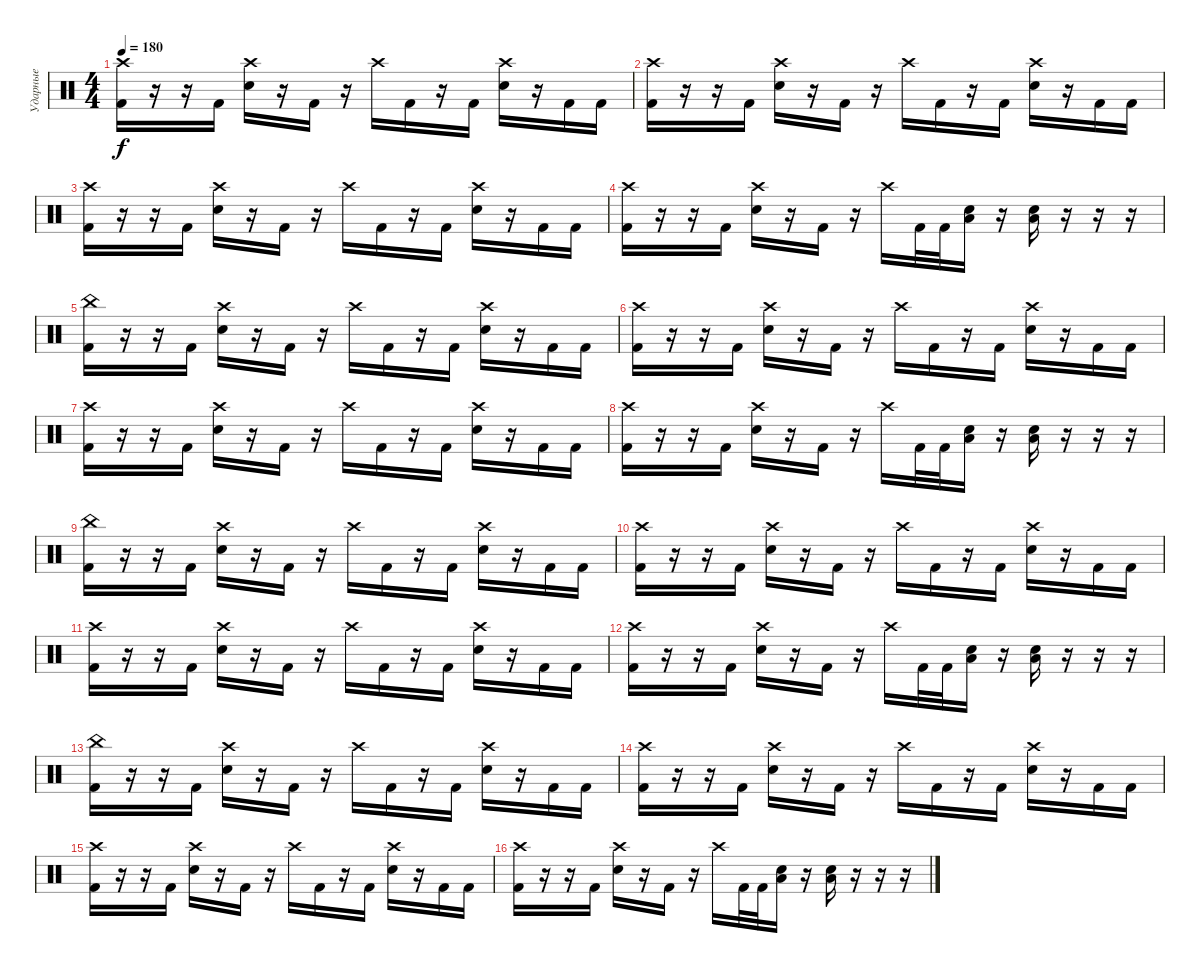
\track ("Ударные" "Ударные") {instrument percussion}
\staff {score}
\articulation defaults
\ts (4 4)
\tempo 180
\clef neutral
\ks c
("Crash high (hit)" "Kick (hit) 2").16{dy f} r.16 r.16 "Kick (hit) 2".16 ("Crash high (hit)" "Electric Snare (hit)").16 r.16 "Kick (hit) 2".16 r.16 "Crash high (hit)".16 "Kick (hit) 2".16 r.16 "Kick (hit) 2".16 ("Crash high (hit)" "Electric Snare (hit)").16 r.16 "Kick (hit) 2".16 "Kick (hit) 2".16 |
("Crash high (hit)" "Kick (hit) 2").16 r.16 r.16 "Kick (hit) 2".16 ("Crash high (hit)" "Electric Snare (hit)").16 r.16 "Kick (hit) 2".16 r.16 "Crash high (hit)".16 "Kick (hit) 2".16 r.16 "Kick (hit) 2".16 ("Crash high (hit)" "Electric Snare (hit)").16 r.16 "Kick (hit) 2".16 "Kick (hit) 2".16 |
("Crash high (hit)" "Kick (hit) 2").16 r.16 r.16 "Kick (hit) 2".16 ("Crash high (hit)" "Electric Snare (hit)").16 r.16 "Kick (hit) 2".16 r.16 "Crash high (hit)".16 "Kick (hit) 2".16 r.16 "Kick (hit) 2".16 ("Crash high (hit)" "Electric Snare (hit)").16 r.16 "Kick (hit) 2".16 "Kick (hit) 2".16 |
("Crash high (hit)" "Kick (hit) 2").16 r.16 r.16 "Kick (hit) 2".16 ("Crash high (hit)" "Electric Snare (hit)").16 r.16 "Kick (hit) 2".16 r.16 "Crash high (hit)".16 "Kick (hit) 2".32 "Kick (hit) 2".32 ("Low Tom (hit)" "Electric Snare (hit)").16 r.16 ("Low Tom (hit)" "Electric Snare (hit)").16 r.16 r.16 r.16 |
("China (hit)" "Kick (hit) 2").16 r.16 r.16 "Kick (hit) 2".16 ("Crash high (hit)" "Electric Snare (hit)").16 r.16 "Kick (hit) 2".16 r.16 "Crash high (hit)".16 "Kick (hit) 2".16 r.16 "Kick (hit) 2".16 ("Crash high (hit)" "Electric Snare (hit)").16 r.16 "Kick (hit) 2".16 "Kick (hit) 2".16 |
("Crash high (hit)" "Kick (hit) 2").16 r.16 r.16 "Kick (hit) 2".16 ("Crash high (hit)" "Electric Snare (hit)").16 r.16 "Kick (hit) 2".16 r.16 "Crash high (hit)".16 "Kick (hit) 2".16 r.16 "Kick (hit) 2".16 ("Crash high (hit)" "Electric Snare (hit)").16 r.16 "Kick (hit) 2".16 "Kick (hit) 2".16 |
("Crash high (hit)" "Kick (hit) 2").16 r.16 r.16 "Kick (hit) 2".16 ("Crash high (hit)" "Electric Snare (hit)").16 r.16 "Kick (hit) 2".16 r.16 "Crash high (hit)".16 "Kick (hit) 2".16 r.16 "Kick (hit) 2".16 ("Crash high (hit)" "Electric Snare (hit)").16 r.16 "Kick (hit) 2".16 "Kick (hit) 2".16 |
("Crash high (hit)" "Kick (hit) 2").16 r.16 r.16 "Kick (hit) 2".16 ("Crash high (hit)" "Electric Snare (hit)").16 r.16 "Kick (hit) 2".16 r.16 "Crash high (hit)".16 "Kick (hit) 2".32 "Kick (hit) 2".32 ("Low Tom (hit)" "Electric Snare (hit)").16 r.16 ("Low Tom (hit)" "Electric Snare (hit)").16 r.16 r.16 r.16 |
("China (hit)" "Kick (hit) 2").16 r.16 r.16 "Kick (hit) 2".16 ("Crash high (hit)" "Electric Snare (hit)").16 r.16 "Kick (hit) 2".16 r.16 "Crash high (hit)".16 "Kick (hit) 2".16 r.16 "Kick (hit) 2".16 ("Crash high (hit)" "Electric Snare (hit)").16 r.16 "Kick (hit) 2".16 "Kick (hit) 2".16 |
("Crash high (hit)" "Kick (hit) 2").16 r.16 r.16 "Kick (hit) 2".16 ("Crash high (hit)" "Electric Snare (hit)").16 r.16 "Kick (hit) 2".16 r.16 "Crash high (hit)".16 "Kick (hit) 2".16 r.16 "Kick (hit) 2".16 ("Crash high (hit)" "Electric Snare (hit)").16 r.16 "Kick (hit) 2".16 "Kick (hit) 2".16 |
("Crash high (hit)" "Kick (hit) 2").16 r.16 r.16 "Kick (hit) 2".16 ("Crash high (hit)" "Electric Snare (hit)").16 r.16 "Kick (hit) 2".16 r.16 "Crash high (hit)".16 "Kick (hit) 2".16 r.16 "Kick (hit) 2".16 ("Crash high (hit)" "Electric Snare (hit)").16 r.16 "Kick (hit) 2".16 "Kick (hit) 2".16 |
("Crash high (hit)" "Kick (hit) 2").16 r.16 r.16 "Kick (hit) 2".16 ("Crash high (hit)" "Electric Snare (hit)").16 r.16 "Kick (hit) 2".16 r.16 "Crash high (hit)".16 "Kick (hit) 2".32 "Kick (hit) 2".32 ("Low Tom (hit)" "Electric Snare (hit)").16 r.16 ("Low Tom (hit)" "Electric Snare (hit)").16 r.16 r.16 r.16 |
("China (hit)" "Kick (hit) 2").16 r.16 r.16 "Kick (hit) 2".16 ("Crash high (hit)" "Electric Snare (hit)").16 r.16 "Kick (hit) 2".16 r.16 "Crash high (hit)".16 "Kick (hit) 2".16 r.16 "Kick (hit) 2".16 ("Crash high (hit)" "Electric Snare (hit)").16 r.16 "Kick (hit) 2".16 "Kick (hit) 2".16 |
("Crash high (hit)" "Kick (hit) 2").16 r.16 r.16 "Kick (hit) 2".16 ("Crash high (hit)" "Electric Snare (hit)").16 r.16 "Kick (hit) 2".16 r.16 "Crash high (hit)".16 "Kick (hit) 2".16 r.16 "Kick (hit) 2".16 ("Crash high (hit)" "Electric Snare (hit)").16 r.16 "Kick (hit) 2".16 "Kick (hit) 2".16 |
("Crash high (hit)" "Kick (hit) 2").16 r.16 r.16 "Kick (hit) 2".16 ("Crash high (hit)" "Electric Snare (hit)").16 r.16 "Kick (hit) 2".16 r.16 "Crash high (hit)".16 "Kick (hit) 2".16 r.16 "Kick (hit) 2".16 ("Crash high (hit)" "Electric Snare (hit)").16 r.16 "Kick (hit) 2".16 "Kick (hit) 2".16 |
("Crash high (hit)" "Kick (hit) 2").16 r.16 r.16 "Kick (hit) 2".16 ("Crash high (hit)" "Electric Snare (hit)").16 r.16 "Kick (hit) 2".16 r.16 "Crash high (hit)".16 "Kick (hit) 2".32 "Kick (hit) 2".32 ("Low Tom (hit)" "Electric Snare (hit)").16 r.16 ("Low Tom (hit)" "Electric Snare (hit)").16 r.16 r.16 r.16
